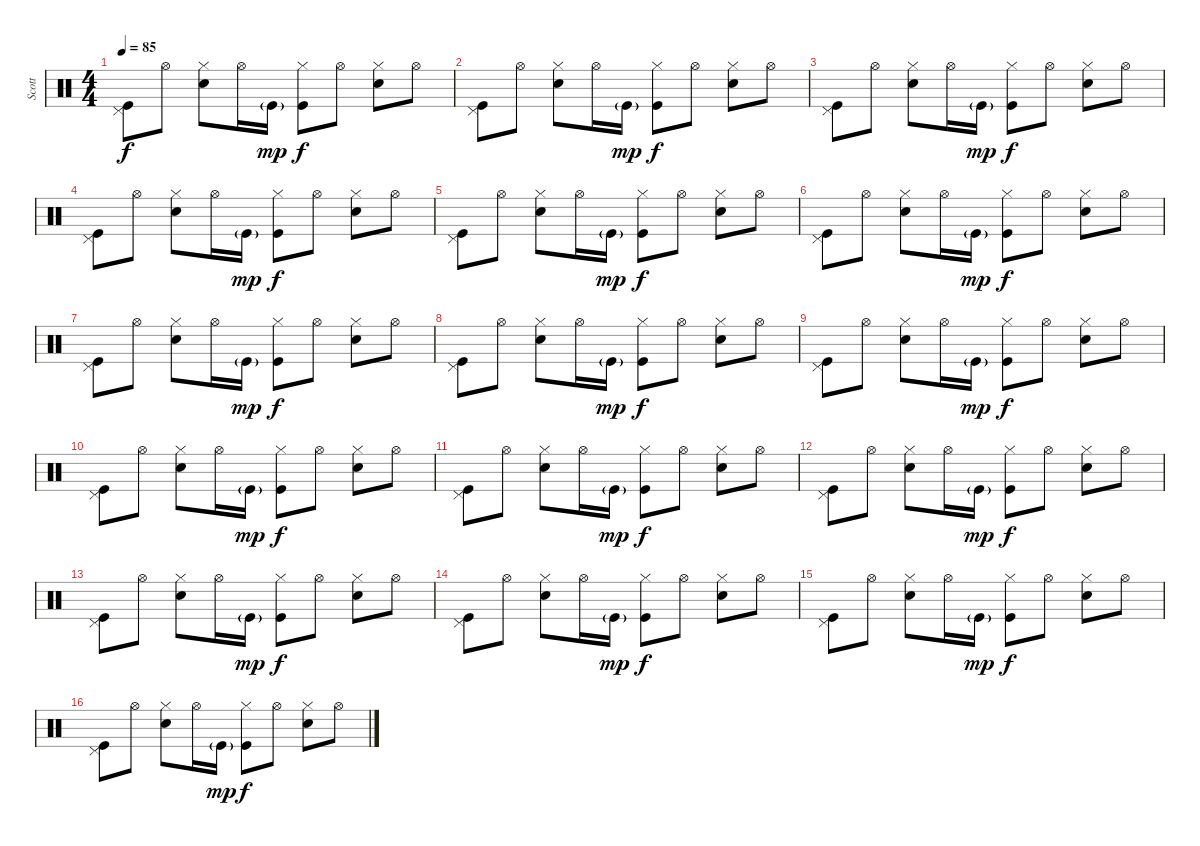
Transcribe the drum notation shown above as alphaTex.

\track ("Scott" "Scott") {instrument percussion}
\staff {score}
\articulation defaults
\ts (4 4)
\tempo 85
\clef neutral
\ks c
("Kick (hit)" "Pedal Hi-Hat (hit)").8{dy f} "Hi-Hat (open)".8 ("Snare (hit) 2" "Hi-Hat (closed)").8 "Hi-Hat (open)".16 "Kick (hit)"{g}.16{dy mp} ("Kick (hit)" "Hi-Hat (closed)").8{dy f} "Hi-Hat (open)".8 ("Snare (hit) 2" "Hi-Hat (closed)").8 "Hi-Hat (open)".8 |
("Kick (hit)" "Pedal Hi-Hat (hit)").8 "Hi-Hat (open)".8 ("Snare (hit) 2" "Hi-Hat (closed)").8 "Hi-Hat (open)".16 "Kick (hit)"{g}.16{dy mp} ("Kick (hit)" "Hi-Hat (closed)").8{dy f} "Hi-Hat (open)".8 ("Snare (hit) 2" "Hi-Hat (closed)").8 "Hi-Hat (open)".8 |
("Kick (hit)" "Pedal Hi-Hat (hit)").8 "Hi-Hat (open)".8 ("Snare (hit) 2" "Hi-Hat (closed)").8 "Hi-Hat (open)".16 "Kick (hit)"{g}.16{dy mp} ("Kick (hit)" "Hi-Hat (closed)").8{dy f} "Hi-Hat (open)".8 ("Snare (hit) 2" "Hi-Hat (closed)").8 "Hi-Hat (open)".8 |
("Kick (hit)" "Pedal Hi-Hat (hit)").8 "Hi-Hat (open)".8 ("Snare (hit) 2" "Hi-Hat (closed)").8 "Hi-Hat (open)".16 "Kick (hit)"{g}.16{dy mp} ("Kick (hit)" "Hi-Hat (closed)").8{dy f} "Hi-Hat (open)".8 ("Snare (hit) 2" "Hi-Hat (closed)").8 "Hi-Hat (open)".8 |
("Kick (hit)" "Pedal Hi-Hat (hit)").8 "Hi-Hat (open)".8 ("Snare (hit) 2" "Hi-Hat (closed)").8 "Hi-Hat (open)".16 "Kick (hit)"{g}.16{dy mp} ("Kick (hit)" "Hi-Hat (closed)").8{dy f} "Hi-Hat (open)".8 ("Snare (hit) 2" "Hi-Hat (closed)").8 "Hi-Hat (open)".8 |
("Kick (hit)" "Pedal Hi-Hat (hit)").8 "Hi-Hat (open)".8 ("Snare (hit) 2" "Hi-Hat (closed)").8 "Hi-Hat (open)".16 "Kick (hit)"{g}.16{dy mp} ("Kick (hit)" "Hi-Hat (closed)").8{dy f} "Hi-Hat (open)".8 ("Snare (hit) 2" "Hi-Hat (closed)").8 "Hi-Hat (open)".8 |
("Kick (hit)" "Pedal Hi-Hat (hit)").8 "Hi-Hat (open)".8 ("Snare (hit) 2" "Hi-Hat (closed)").8 "Hi-Hat (open)".16 "Kick (hit)"{g}.16{dy mp} ("Kick (hit)" "Hi-Hat (closed)").8{dy f} "Hi-Hat (open)".8 ("Snare (hit) 2" "Hi-Hat (closed)").8 "Hi-Hat (open)".8 |
("Kick (hit)" "Pedal Hi-Hat (hit)").8 "Hi-Hat (open)".8 ("Snare (hit) 2" "Hi-Hat (closed)").8 "Hi-Hat (open)".16 "Kick (hit)"{g}.16{dy mp} ("Kick (hit)" "Hi-Hat (closed)").8{dy f} "Hi-Hat (open)".8 ("Snare (hit) 2" "Hi-Hat (closed)").8 "Hi-Hat (open)".8 |
("Kick (hit)" "Pedal Hi-Hat (hit)").8 "Hi-Hat (open)".8 ("Snare (hit) 2" "Hi-Hat (closed)").8 "Hi-Hat (open)".16 "Kick (hit)"{g}.16{dy mp} ("Kick (hit)" "Hi-Hat (closed)").8{dy f} "Hi-Hat (open)".8 ("Snare (hit) 2" "Hi-Hat (closed)").8 "Hi-Hat (open)".8 |
("Kick (hit)" "Pedal Hi-Hat (hit)").8 "Hi-Hat (open)".8 ("Snare (hit) 2" "Hi-Hat (closed)").8 "Hi-Hat (open)".16 "Kick (hit)"{g}.16{dy mp} ("Kick (hit)" "Hi-Hat (closed)").8{dy f} "Hi-Hat (open)".8 ("Snare (hit) 2" "Hi-Hat (closed)").8 "Hi-Hat (open)".8 |
("Kick (hit)" "Pedal Hi-Hat (hit)").8 "Hi-Hat (open)".8 ("Snare (hit) 2" "Hi-Hat (closed)").8 "Hi-Hat (open)".16 "Kick (hit)"{g}.16{dy mp} ("Kick (hit)" "Hi-Hat (closed)").8{dy f} "Hi-Hat (open)".8 ("Snare (hit) 2" "Hi-Hat (closed)").8 "Hi-Hat (open)".8 |
("Kick (hit)" "Pedal Hi-Hat (hit)").8 "Hi-Hat (open)".8 ("Snare (hit) 2" "Hi-Hat (closed)").8 "Hi-Hat (open)".16 "Kick (hit)"{g}.16{dy mp} ("Kick (hit)" "Hi-Hat (closed)").8{dy f} "Hi-Hat (open)".8 ("Snare (hit) 2" "Hi-Hat (closed)").8 "Hi-Hat (open)".8 |
("Kick (hit)" "Pedal Hi-Hat (hit)").8 "Hi-Hat (open)".8 ("Snare (hit) 2" "Hi-Hat (closed)").8 "Hi-Hat (open)".16 "Kick (hit)"{g}.16{dy mp} ("Kick (hit)" "Hi-Hat (closed)").8{dy f} "Hi-Hat (open)".8 ("Snare (hit) 2" "Hi-Hat (closed)").8 "Hi-Hat (open)".8 |
("Kick (hit)" "Pedal Hi-Hat (hit)").8 "Hi-Hat (open)".8 ("Snare (hit) 2" "Hi-Hat (closed)").8 "Hi-Hat (open)".16 "Kick (hit)"{g}.16{dy mp} ("Kick (hit)" "Hi-Hat (closed)").8{dy f} "Hi-Hat (open)".8 ("Snare (hit) 2" "Hi-Hat (closed)").8 "Hi-Hat (open)".8 |
("Kick (hit)" "Pedal Hi-Hat (hit)").8 "Hi-Hat (open)".8 ("Snare (hit) 2" "Hi-Hat (closed)").8 "Hi-Hat (open)".16 "Kick (hit)"{g}.16{dy mp} ("Kick (hit)" "Hi-Hat (closed)").8{dy f} "Hi-Hat (open)".8 ("Snare (hit) 2" "Hi-Hat (closed)").8 "Hi-Hat (open)".8 |
("Kick (hit)" "Pedal Hi-Hat (hit)").8 "Hi-Hat (open)".8 ("Snare (hit) 2" "Hi-Hat (closed)").8 "Hi-Hat (open)".16 "Kick (hit)"{g}.16{dy mp} ("Kick (hit)" "Hi-Hat (closed)").8{dy f} "Hi-Hat (open)".8 ("Snare (hit) 2" "Hi-Hat (closed)").8 "Hi-Hat (open)".8
